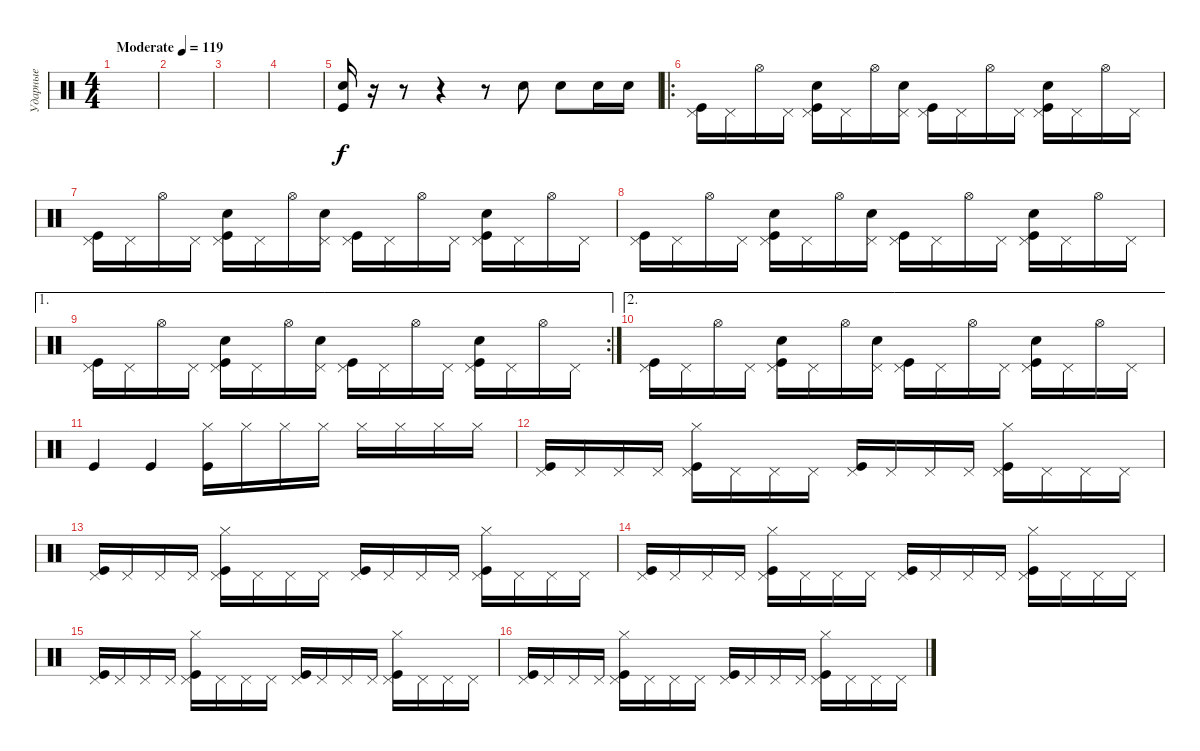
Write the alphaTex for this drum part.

\track ("Ударные" "Ударные") {instrument percussion}
\staff {score}
\articulation defaults
\ts (4 4)
\tempo (119 "Moderate")
\clef neutral
\ks c
|
|
|
|
("Kick (hit)" "Electric Snare (hit)").16 r.16 r.8 r.4 r.8 "Electric Snare (hit)".8 "Electric Snare (hit)".8 "Electric Snare (hit)".16 "Electric Snare (hit)".16 |
\ro
("Kick (hit)" "Pedal Hi-Hat (hit)").16 "Pedal Hi-Hat (hit)".16 "Hi-Hat (open)".16 "Pedal Hi-Hat (hit)".16 ("Kick (hit)" "Electric Snare (hit)" "Pedal Hi-Hat (hit)").16 "Pedal Hi-Hat (hit)".16 "Hi-Hat (open)".16 ("Electric Snare (hit)" "Pedal Hi-Hat (hit)").16 ("Kick (hit)" "Pedal Hi-Hat (hit)").16 "Pedal Hi-Hat (hit)".16 "Hi-Hat (open)".16 "Pedal Hi-Hat (hit)".16 ("Kick (hit)" "Electric Snare (hit)" "Pedal Hi-Hat (hit)").16 "Pedal Hi-Hat (hit)".16 "Hi-Hat (open)".16 "Pedal Hi-Hat (hit)".16 |
("Kick (hit)" "Pedal Hi-Hat (hit)").16 "Pedal Hi-Hat (hit)".16 "Hi-Hat (open)".16 "Pedal Hi-Hat (hit)".16 ("Kick (hit)" "Electric Snare (hit)" "Pedal Hi-Hat (hit)").16 "Pedal Hi-Hat (hit)".16 "Hi-Hat (open)".16 ("Electric Snare (hit)" "Pedal Hi-Hat (hit)").16 ("Kick (hit)" "Pedal Hi-Hat (hit)").16 "Pedal Hi-Hat (hit)".16 "Hi-Hat (open)".16 "Pedal Hi-Hat (hit)".16 ("Kick (hit)" "Electric Snare (hit)" "Pedal Hi-Hat (hit)").16 "Pedal Hi-Hat (hit)".16 "Hi-Hat (open)".16 "Pedal Hi-Hat (hit)".16 |
("Kick (hit)" "Pedal Hi-Hat (hit)").16 "Pedal Hi-Hat (hit)".16 "Hi-Hat (open)".16 "Pedal Hi-Hat (hit)".16 ("Kick (hit)" "Electric Snare (hit)" "Pedal Hi-Hat (hit)").16 "Pedal Hi-Hat (hit)".16 "Hi-Hat (open)".16 ("Electric Snare (hit)" "Pedal Hi-Hat (hit)").16 ("Kick (hit)" "Pedal Hi-Hat (hit)").16 "Pedal Hi-Hat (hit)".16 "Hi-Hat (open)".16 "Pedal Hi-Hat (hit)".16 ("Kick (hit)" "Electric Snare (hit)" "Pedal Hi-Hat (hit)").16 "Pedal Hi-Hat (hit)".16 "Hi-Hat (open)".16 "Pedal Hi-Hat (hit)".16 |
\ae 1
\rc 2
("Kick (hit)" "Pedal Hi-Hat (hit)").16 "Pedal Hi-Hat (hit)".16 "Hi-Hat (open)".16 "Pedal Hi-Hat (hit)".16 ("Kick (hit)" "Electric Snare (hit)" "Pedal Hi-Hat (hit)").16 "Pedal Hi-Hat (hit)".16 "Hi-Hat (open)".16 ("Electric Snare (hit)" "Pedal Hi-Hat (hit)").16 ("Kick (hit)" "Pedal Hi-Hat (hit)").16 "Pedal Hi-Hat (hit)".16 "Hi-Hat (open)".16 "Pedal Hi-Hat (hit)".16 ("Kick (hit)" "Electric Snare (hit)" "Pedal Hi-Hat (hit)").16 "Pedal Hi-Hat (hit)".16 "Hi-Hat (open)".16 "Pedal Hi-Hat (hit)".16 |
\ae 2
("Kick (hit)" "Pedal Hi-Hat (hit)").16 "Pedal Hi-Hat (hit)".16 "Hi-Hat (open)".16 "Pedal Hi-Hat (hit)".16 ("Kick (hit)" "Electric Snare (hit)" "Pedal Hi-Hat (hit)").16 "Pedal Hi-Hat (hit)".16 "Hi-Hat (open)".16 ("Electric Snare (hit)" "Pedal Hi-Hat (hit)").16 ("Kick (hit)" "Pedal Hi-Hat (hit)").16 "Pedal Hi-Hat (hit)".16 "Hi-Hat (open)".16 "Pedal Hi-Hat (hit)".16 ("Kick (hit)" "Electric Snare (hit)" "Pedal Hi-Hat (hit)").16 "Pedal Hi-Hat (hit)".16 "Hi-Hat (open)".16 "Pedal Hi-Hat (hit)".16 |
"Kick (hit)".4 "Kick (hit)".4 ("Kick (hit)" "Hi-Hat (closed)").16 "Hi-Hat (closed)".16 "Hi-Hat (closed)".16 "Hi-Hat (closed)".16 "Hi-Hat (closed)".16 "Hi-Hat (closed)".16 "Hi-Hat (closed)".16 "Hi-Hat (closed)".16 |
("Kick (hit)" "Pedal Hi-Hat (hit)").16 "Pedal Hi-Hat (hit)".16 "Pedal Hi-Hat (hit)".16 "Pedal Hi-Hat (hit)".16 ("Kick (hit)" "Pedal Hi-Hat (hit)" "Hi-Hat (closed)").16 "Pedal Hi-Hat (hit)".16 "Pedal Hi-Hat (hit)".16 "Pedal Hi-Hat (hit)".16 ("Kick (hit)" "Pedal Hi-Hat (hit)").16 "Pedal Hi-Hat (hit)".16 "Pedal Hi-Hat (hit)".16 "Pedal Hi-Hat (hit)".16 ("Kick (hit)" "Pedal Hi-Hat (hit)" "Hi-Hat (closed)").16 "Pedal Hi-Hat (hit)".16 "Pedal Hi-Hat (hit)".16 "Pedal Hi-Hat (hit)".16 |
("Kick (hit)" "Pedal Hi-Hat (hit)").16 "Pedal Hi-Hat (hit)".16 "Pedal Hi-Hat (hit)".16 "Pedal Hi-Hat (hit)".16 ("Kick (hit)" "Pedal Hi-Hat (hit)" "Hi-Hat (closed)").16 "Pedal Hi-Hat (hit)".16 "Pedal Hi-Hat (hit)".16 "Pedal Hi-Hat (hit)".16 ("Kick (hit)" "Pedal Hi-Hat (hit)").16 "Pedal Hi-Hat (hit)".16 "Pedal Hi-Hat (hit)".16 "Pedal Hi-Hat (hit)".16 ("Kick (hit)" "Pedal Hi-Hat (hit)" "Hi-Hat (closed)").16 "Pedal Hi-Hat (hit)".16 "Pedal Hi-Hat (hit)".16 "Pedal Hi-Hat (hit)".16 |
("Kick (hit)" "Pedal Hi-Hat (hit)").16 "Pedal Hi-Hat (hit)".16 "Pedal Hi-Hat (hit)".16 "Pedal Hi-Hat (hit)".16 ("Kick (hit)" "Pedal Hi-Hat (hit)" "Hi-Hat (closed)").16 "Pedal Hi-Hat (hit)".16 "Pedal Hi-Hat (hit)".16 "Pedal Hi-Hat (hit)".16 ("Kick (hit)" "Pedal Hi-Hat (hit)").16 "Pedal Hi-Hat (hit)".16 "Pedal Hi-Hat (hit)".16 "Pedal Hi-Hat (hit)".16 ("Kick (hit)" "Pedal Hi-Hat (hit)" "Hi-Hat (closed)").16 "Pedal Hi-Hat (hit)".16 "Pedal Hi-Hat (hit)".16 "Pedal Hi-Hat (hit)".16 |
("Kick (hit)" "Pedal Hi-Hat (hit)").16 "Pedal Hi-Hat (hit)".16 "Pedal Hi-Hat (hit)".16 "Pedal Hi-Hat (hit)".16 ("Kick (hit)" "Pedal Hi-Hat (hit)" "Hi-Hat (closed)").16 "Pedal Hi-Hat (hit)".16 "Pedal Hi-Hat (hit)".16 "Pedal Hi-Hat (hit)".16 ("Kick (hit)" "Pedal Hi-Hat (hit)").16 "Pedal Hi-Hat (hit)".16 "Pedal Hi-Hat (hit)".16 "Pedal Hi-Hat (hit)".16 ("Kick (hit)" "Pedal Hi-Hat (hit)" "Hi-Hat (closed)").16 "Pedal Hi-Hat (hit)".16 "Pedal Hi-Hat (hit)".16 "Pedal Hi-Hat (hit)".16 |
("Kick (hit)" "Pedal Hi-Hat (hit)").16 "Pedal Hi-Hat (hit)".16 "Pedal Hi-Hat (hit)".16 "Pedal Hi-Hat (hit)".16 ("Kick (hit)" "Pedal Hi-Hat (hit)" "Hi-Hat (closed)").16 "Pedal Hi-Hat (hit)".16 "Pedal Hi-Hat (hit)".16 "Pedal Hi-Hat (hit)".16 ("Kick (hit)" "Pedal Hi-Hat (hit)").16 "Pedal Hi-Hat (hit)".16 "Pedal Hi-Hat (hit)".16 "Pedal Hi-Hat (hit)".16 ("Kick (hit)" "Pedal Hi-Hat (hit)" "Hi-Hat (closed)").16 "Pedal Hi-Hat (hit)".16 "Pedal Hi-Hat (hit)".16 "Pedal Hi-Hat (hit)".16
